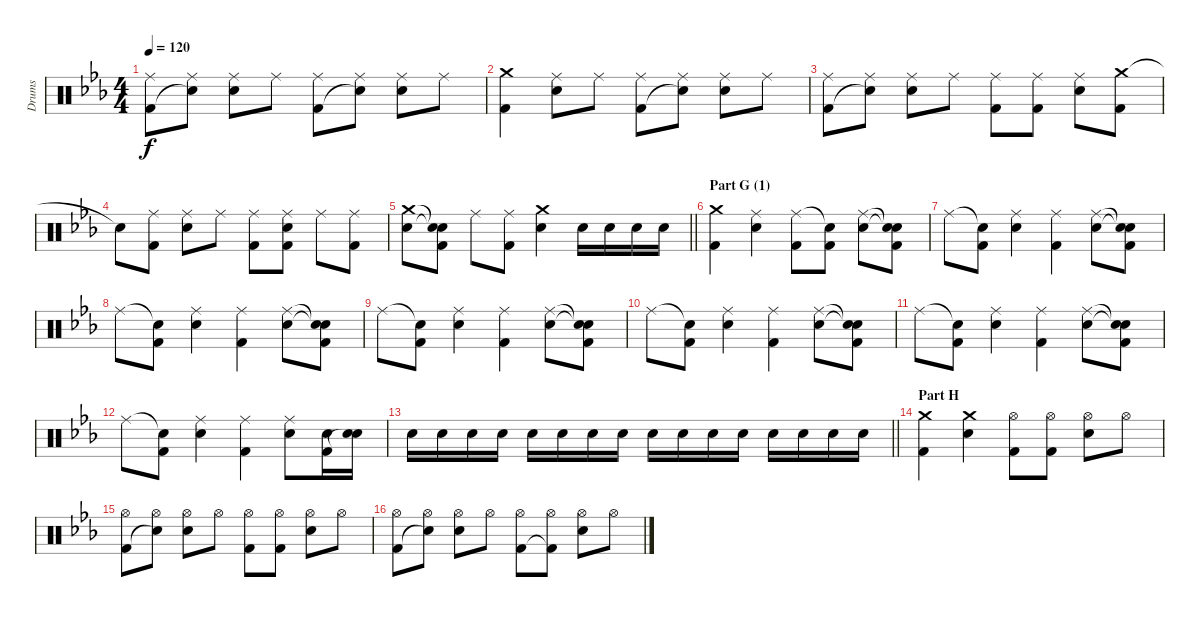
\track ("Drums" "Drums") {instrument percussion}
\staff {score}
\articulation defaults
\ts (4 4)
\tempo 120
\clef neutral
\ks eb
("Ride (middle)" "Kick (hit) 2").8{dy f} ("Ride (middle)" "Snare (hit)"{t}).8 ("Ride (middle)" "Electric Snare (hit)").8 "Ride (middle)".8 ("Ride (middle)" "Kick (hit) 2").8 ("Ride (middle)" "Snare (hit)"{t}).8 ("Ride (middle)" "Electric Snare (hit)").8 "Ride (middle)".8 |
("Crash medium (hit)" "Kick (hit) 2").4 ("Ride (middle)" "Electric Snare (hit)").8 "Ride (middle)".8 ("Ride (middle)" "Kick (hit) 2").8 ("Ride (middle)" "Snare (hit)"{t}).8 ("Ride (middle)" "Electric Snare (hit)").8 "Ride (middle)".8 |
("Ride (middle)" "Kick (hit) 2").8 ("Ride (middle)" "Snare (hit)"{t}).8 ("Ride (middle)" "Electric Snare (hit)").8 "Ride (middle)".8 ("Ride (middle)" "Kick (hit) 2").8 ("Ride (middle)" "Kick (hit) 2").8 ("Ride (middle)" "Electric Snare (hit)").8 ("Crash medium (hit)" "Kick (hit) 2").8 |
"Snare (hit)"{t}.8 ("Ride (middle)" "Kick (hit) 2").8 ("Ride (middle)" "Electric Snare (hit)").8 "Ride (middle)".8 ("Ride (middle)" "Kick (hit) 2").8 ("Ride (middle)" "Electric Snare (hit)" "Kick (hit) 2").8 "Ride (middle)".8 ("Ride (middle)" "Kick (hit) 2").8 |
\barLineRight lightlight
("Crash medium (hit)" "Electric Snare (hit)").8 ("Snare (hit)"{t} "Snare (hit)"{t} "Kick (hit) 2").8 "Ride (middle)".8 ("Ride (middle)" "Kick (hit) 2").8 ("Crash medium (hit)" "Electric Snare (hit)").4 "Electric Snare (hit)".16 "Electric Snare (hit)".16 "Electric Snare (hit)".16 "Electric Snare (hit)".16 |
\section ("" "Part G (1)")
("Crash medium (hit)" "Kick (hit) 2").4 ("Ride (middle)" "Electric Snare (hit)").4 ("Ride (middle)" "Kick (hit) 2").8 ("Snare (hit)"{t} "Kick (hit) 2").8 ("Ride (middle)" "Electric Snare (hit)").8 ("Snare (hit)"{t} "Snare (hit)"{t} "Kick (hit) 2").8 |
"Ride (middle)".8 ("Snare (hit)"{t} "Kick (hit) 2").8 ("Ride (middle)" "Electric Snare (hit)").4 ("Ride (middle)" "Kick (hit) 2").4 ("Ride (middle)" "Electric Snare (hit)").8 ("Snare (hit)"{t} "Snare (hit)"{t} "Kick (hit) 2").8 |
"Ride (middle)".8 ("Snare (hit)"{t} "Kick (hit) 2").8 ("Ride (middle)" "Electric Snare (hit)").4 ("Ride (middle)" "Kick (hit) 2").4 ("Ride (middle)" "Electric Snare (hit)").8 ("Snare (hit)"{t} "Snare (hit)"{t} "Kick (hit) 2").8 |
"Ride (middle)".8 ("Snare (hit)"{t} "Kick (hit) 2").8 ("Ride (middle)" "Electric Snare (hit)").4 ("Ride (middle)" "Kick (hit) 2").4 ("Ride (middle)" "Electric Snare (hit)").8 ("Snare (hit)"{t} "Snare (hit)"{t} "Kick (hit) 2").8 |
"Ride (middle)".8 ("Snare (hit)"{t} "Kick (hit) 2").8 ("Ride (middle)" "Electric Snare (hit)").4 ("Ride (middle)" "Kick (hit) 2").4 ("Ride (middle)" "Electric Snare (hit)").8 ("Snare (hit)"{t} "Snare (hit)"{t} "Kick (hit) 2").8 |
"Ride (middle)".8 ("Snare (hit)"{t} "Kick (hit) 2").8 ("Ride (middle)" "Electric Snare (hit)").4 ("Ride (middle)" "Kick (hit) 2").4 ("Ride (middle)" "Electric Snare (hit)").8 ("Snare (hit)"{t} "Snare (hit)"{t} "Kick (hit) 2").8 |
"Ride (middle)".8 ("Snare (hit)"{t} "Kick (hit) 2").8 ("Ride (middle)" "Electric Snare (hit)").4 ("Ride (middle)" "Kick (hit) 2").4 ("Ride (middle)" "Electric Snare (hit)").8 ("Electric Snare (hit)" "Kick (hit) 2").16 ("Electric Snare (hit)" "Snare (hit)"{t}).16 |
\barLineRight lightlight "Electric Snare (hit)".16 "Electric Snare (hit)".16 "Electric Snare (hit)".16 "Electric Snare (hit)".16 "Electric Snare (hit)".16 "Electric Snare (hit)".16 "Electric Snare (hit)".16 "Electric Snare (hit)".16 "Electric Snare (hit)".16 "Electric Snare (hit)".16 "Electric Snare (hit)".16 "Electric Snare (hit)".16 "Electric Snare (hit)".16 "Electric Snare (hit)".16 "Electric Snare (hit)".16 "Electric Snare (hit)".16
|
\section ("" "Part H")
("Crash medium (hit)" "Kick (hit) 2").4 ("Crash medium (hit)" "Electric Snare (hit)").4 ("Hi-Hat (open)" "Kick (hit) 2").8 ("Hi-Hat (open)" "Kick (hit) 2").8 ("Hi-Hat (open)" "Electric Snare (hit)").8 "Hi-Hat (open)".8 |
("Hi-Hat (open)" "Kick (hit) 2").8 ("Hi-Hat (open)" "Snare (hit)"{t}).8 ("Hi-Hat (open)" "Electric Snare (hit)").8 "Hi-Hat (open)".8 ("Hi-Hat (open)" "Kick (hit) 2").8 ("Hi-Hat (open)" "Kick (hit) 2").8 ("Hi-Hat (open)" "Electric Snare (hit)").8 "Hi-Hat (open)".8 |
("Hi-Hat (open)" "Kick (hit) 2").8 ("Hi-Hat (open)" "Snare (hit)"{t}).8 ("Hi-Hat (open)" "Electric Snare (hit)").8 "Hi-Hat (open)".8 ("Hi-Hat (open)" "Kick (hit) 2").8 ("Hi-Hat (open)" "Kick (hit) 2"{t}).8 ("Hi-Hat (open)" "Electric Snare (hit)").8 "Hi-Hat (open)".8
